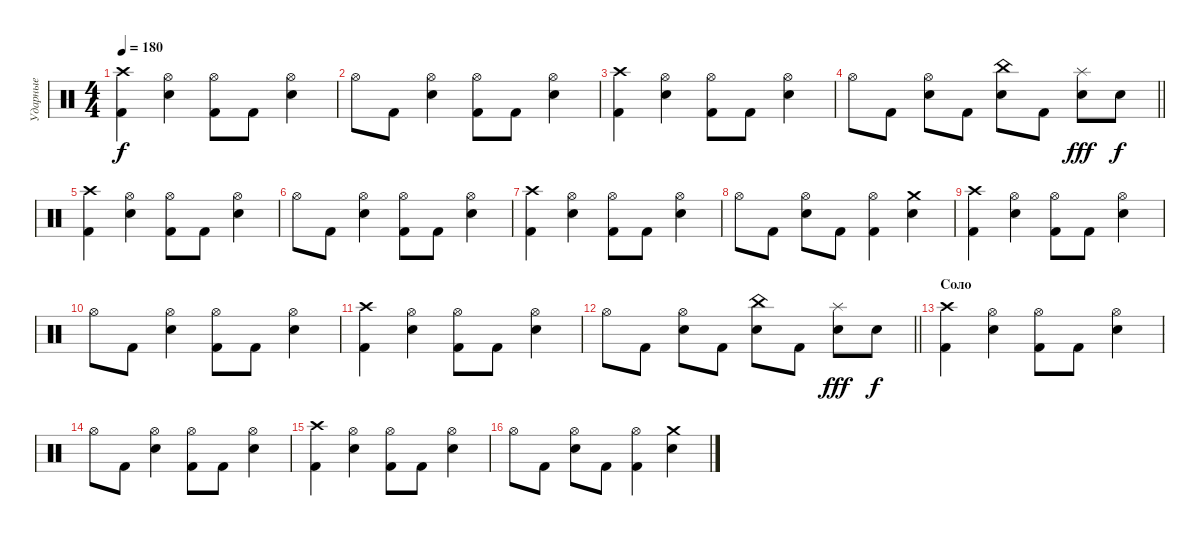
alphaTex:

\track ("Ударные" "Ударные") {instrument percussion}
\staff {score}
\articulation defaults
\ts (4 4)
\tempo 180
\clef neutral
\ks c
("Crash high (hit)" "Kick (hit) 2").4{dy f} ("Hi-Hat (open)" "Snare (hit) 2").4 ("Hi-Hat (open)" "Kick (hit) 2").8 "Kick (hit) 2".8 ("Hi-Hat (open)" "Snare (hit) 2").4 |
"Hi-Hat (open)".8 "Kick (hit) 2".8 ("Hi-Hat (open)" "Snare (hit) 2").4 ("Hi-Hat (open)" "Kick (hit) 2").8 "Kick (hit) 2".8 ("Hi-Hat (open)" "Snare (hit) 2").4 |
("Crash high (hit)" "Kick (hit) 2").4 ("Hi-Hat (open)" "Snare (hit) 2").4 ("Hi-Hat (open)" "Kick (hit) 2").8 "Kick (hit) 2".8 ("Hi-Hat (open)" "Snare (hit) 2").4 |
\barLineRight lightlight "Hi-Hat (open)".8 "Kick (hit) 2".8
("Hi-Hat (open)" "Snare (hit) 2").8 "Kick (hit) 2".8 ("China (hit)" "Snare (hit) 2").8 "Kick (hit) 2".8 ("Splash (hit)" "Snare (hit) 2").8{dy fff} "Snare (hit) 2".8{dy f} |
("Crash high (hit)" "Kick (hit) 2").4 ("Hi-Hat (open)" "Snare (hit) 2").4 ("Hi-Hat (open)" "Kick (hit) 2").8 "Kick (hit) 2".8 ("Hi-Hat (open)" "Snare (hit) 2").4 |
"Hi-Hat (open)".8 "Kick (hit) 2".8 ("Hi-Hat (open)" "Snare (hit) 2").4 ("Hi-Hat (open)" "Kick (hit) 2").8 "Kick (hit) 2".8 ("Hi-Hat (open)" "Snare (hit) 2").4 |
("Crash high (hit)" "Kick (hit) 2").4 ("Hi-Hat (open)" "Snare (hit) 2").4 ("Hi-Hat (open)" "Kick (hit) 2").8 "Kick (hit) 2".8 ("Hi-Hat (open)" "Snare (hit) 2").4 |
"Hi-Hat (open)".8 "Kick (hit) 2".8 ("Hi-Hat (open)" "Snare (hit) 2").8 "Kick (hit) 2".8 ("Hi-Hat (open)" "Kick (hit) 2").4 ("Crash medium (hit)" "Snare (hit) 2").4 |
("Crash high (hit)" "Kick (hit) 2").4 ("Hi-Hat (open)" "Snare (hit) 2").4 ("Hi-Hat (open)" "Kick (hit) 2").8 "Kick (hit) 2".8 ("Hi-Hat (open)" "Snare (hit) 2").4 |
"Hi-Hat (open)".8 "Kick (hit) 2".8 ("Hi-Hat (open)" "Snare (hit) 2").4 ("Hi-Hat (open)" "Kick (hit) 2").8 "Kick (hit) 2".8 ("Hi-Hat (open)" "Snare (hit) 2").4 |
("Crash high (hit)" "Kick (hit) 2").4 ("Hi-Hat (open)" "Snare (hit) 2").4 ("Hi-Hat (open)" "Kick (hit) 2").8 "Kick (hit) 2".8 ("Hi-Hat (open)" "Snare (hit) 2").4 |
\barLineRight lightlight "Hi-Hat (open)".8 "Kick (hit) 2".8
("Hi-Hat (open)" "Snare (hit) 2").8 "Kick (hit) 2".8 ("China (hit)" "Snare (hit) 2").8 "Kick (hit) 2".8 ("Splash (hit)" "Snare (hit) 2").8{dy fff} "Snare (hit) 2".8{dy f} |
\section ("" "Соло")
("Crash high (hit)" "Kick (hit) 2").4 ("Hi-Hat (open)" "Snare (hit) 2").4 ("Hi-Hat (open)" "Kick (hit) 2").8 "Kick (hit) 2".8 ("Hi-Hat (open)" "Snare (hit) 2").4 |
"Hi-Hat (open)".8 "Kick (hit) 2".8 ("Hi-Hat (open)" "Snare (hit) 2").4 ("Hi-Hat (open)" "Kick (hit) 2").8 "Kick (hit) 2".8 ("Hi-Hat (open)" "Snare (hit) 2").4 |
("Crash high (hit)" "Kick (hit) 2").4 ("Hi-Hat (open)" "Snare (hit) 2").4 ("Hi-Hat (open)" "Kick (hit) 2").8 "Kick (hit) 2".8 ("Hi-Hat (open)" "Snare (hit) 2").4 |
"Hi-Hat (open)".8 "Kick (hit) 2".8 ("Hi-Hat (open)" "Snare (hit) 2").8 "Kick (hit) 2".8 ("Hi-Hat (open)" "Kick (hit) 2").4 ("Crash medium (hit)" "Snare (hit) 2").4
